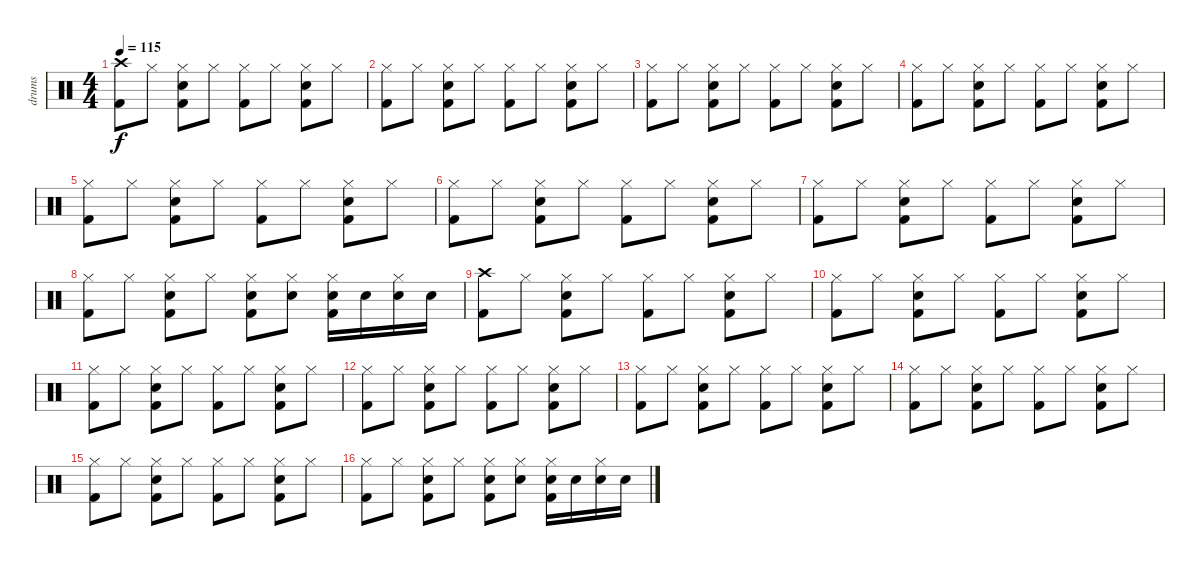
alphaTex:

\track ("drums" "drums") {instrument percussion}
\staff {score}
\articulation defaults
\ts (4 4)
\tempo 115
\clef neutral
\ks c
("Crash high (hit)" "Kick (hit) 2").8{dy f} "Hi-Hat (closed)".8 ("Hi-Hat (closed)" "Electric Snare (hit)" "Kick (hit) 2").8 "Hi-Hat (closed)".8 ("Hi-Hat (closed)" "Kick (hit) 2").8 "Hi-Hat (closed)".8 ("Hi-Hat (closed)" "Electric Snare (hit)" "Kick (hit) 2").8 "Hi-Hat (closed)".8 |
("Hi-Hat (closed)" "Kick (hit) 2").8 "Hi-Hat (closed)".8 ("Hi-Hat (closed)" "Electric Snare (hit)" "Kick (hit) 2").8 "Hi-Hat (closed)".8 ("Hi-Hat (closed)" "Kick (hit) 2").8 "Hi-Hat (closed)".8 ("Hi-Hat (closed)" "Electric Snare (hit)" "Kick (hit) 2").8 "Hi-Hat (closed)".8 |
("Hi-Hat (closed)" "Kick (hit) 2").8 "Hi-Hat (closed)".8 ("Hi-Hat (closed)" "Electric Snare (hit)" "Kick (hit) 2").8 "Hi-Hat (closed)".8 ("Hi-Hat (closed)" "Kick (hit) 2").8 "Hi-Hat (closed)".8 ("Hi-Hat (closed)" "Electric Snare (hit)" "Kick (hit) 2").8 "Hi-Hat (closed)".8 |
("Hi-Hat (closed)" "Kick (hit) 2").8 "Hi-Hat (closed)".8 ("Hi-Hat (closed)" "Electric Snare (hit)" "Kick (hit) 2").8 "Hi-Hat (closed)".8 ("Hi-Hat (closed)" "Kick (hit) 2").8 "Hi-Hat (closed)".8 ("Hi-Hat (closed)" "Electric Snare (hit)" "Kick (hit) 2").8 "Hi-Hat (closed)".8 |
("Hi-Hat (closed)" "Kick (hit) 2").8 "Hi-Hat (closed)".8 ("Hi-Hat (closed)" "Electric Snare (hit)" "Kick (hit) 2").8 "Hi-Hat (closed)".8 ("Hi-Hat (closed)" "Kick (hit) 2").8 "Hi-Hat (closed)".8 ("Hi-Hat (closed)" "Electric Snare (hit)" "Kick (hit) 2").8 "Hi-Hat (closed)".8 |
("Hi-Hat (closed)" "Kick (hit) 2").8 "Hi-Hat (closed)".8 ("Hi-Hat (closed)" "Electric Snare (hit)" "Kick (hit) 2").8 "Hi-Hat (closed)".8 ("Hi-Hat (closed)" "Kick (hit) 2").8 "Hi-Hat (closed)".8 ("Hi-Hat (closed)" "Electric Snare (hit)" "Kick (hit) 2").8 "Hi-Hat (closed)".8 |
("Hi-Hat (closed)" "Kick (hit) 2").8 "Hi-Hat (closed)".8 ("Hi-Hat (closed)" "Electric Snare (hit)" "Kick (hit) 2").8 "Hi-Hat (closed)".8 ("Hi-Hat (closed)" "Kick (hit) 2").8 "Hi-Hat (closed)".8 ("Hi-Hat (closed)" "Electric Snare (hit)" "Kick (hit) 2").8 "Hi-Hat (closed)".8 |
("Hi-Hat (closed)" "Kick (hit) 2").8 "Hi-Hat (closed)".8 ("Hi-Hat (closed)" "Electric Snare (hit)" "Kick (hit) 2").8 "Hi-Hat (closed)".8 ("Hi-Hat (closed)" "Electric Snare (hit)" "Kick (hit) 2").8 ("Hi-Hat (closed)" "Electric Snare (hit)").8 ("Hi-Hat (closed)" "Electric Snare (hit)" "Kick (hit) 2").16 "Electric Snare (hit)".16 ("Hi-Hat (closed)" "Electric Snare (hit)").16 "Electric Snare (hit)".16 |
("Crash high (hit)" "Kick (hit) 2").8 "Hi-Hat (closed)".8 ("Hi-Hat (closed)" "Electric Snare (hit)" "Kick (hit) 2").8 "Hi-Hat (closed)".8 ("Hi-Hat (closed)" "Kick (hit) 2").8 "Hi-Hat (closed)".8 ("Hi-Hat (closed)" "Electric Snare (hit)" "Kick (hit) 2").8 "Hi-Hat (closed)".8 |
("Hi-Hat (closed)" "Kick (hit) 2").8 "Hi-Hat (closed)".8 ("Hi-Hat (closed)" "Electric Snare (hit)" "Kick (hit) 2").8 "Hi-Hat (closed)".8 ("Hi-Hat (closed)" "Kick (hit) 2").8 "Hi-Hat (closed)".8 ("Hi-Hat (closed)" "Electric Snare (hit)" "Kick (hit) 2").8 "Hi-Hat (closed)".8 |
("Hi-Hat (closed)" "Kick (hit) 2").8 "Hi-Hat (closed)".8 ("Hi-Hat (closed)" "Electric Snare (hit)" "Kick (hit) 2").8 "Hi-Hat (closed)".8 ("Hi-Hat (closed)" "Kick (hit) 2").8 "Hi-Hat (closed)".8 ("Hi-Hat (closed)" "Electric Snare (hit)" "Kick (hit) 2").8 "Hi-Hat (closed)".8 |
("Hi-Hat (closed)" "Kick (hit) 2").8 "Hi-Hat (closed)".8 ("Hi-Hat (closed)" "Electric Snare (hit)" "Kick (hit) 2").8 "Hi-Hat (closed)".8 ("Hi-Hat (closed)" "Kick (hit) 2").8 "Hi-Hat (closed)".8 ("Hi-Hat (closed)" "Electric Snare (hit)" "Kick (hit) 2").8 "Hi-Hat (closed)".8 |
("Hi-Hat (closed)" "Kick (hit) 2").8 "Hi-Hat (closed)".8 ("Hi-Hat (closed)" "Electric Snare (hit)" "Kick (hit) 2").8 "Hi-Hat (closed)".8 ("Hi-Hat (closed)" "Kick (hit) 2").8 "Hi-Hat (closed)".8 ("Hi-Hat (closed)" "Electric Snare (hit)" "Kick (hit) 2").8 "Hi-Hat (closed)".8 |
("Hi-Hat (closed)" "Kick (hit) 2").8 "Hi-Hat (closed)".8 ("Hi-Hat (closed)" "Electric Snare (hit)" "Kick (hit) 2").8 "Hi-Hat (closed)".8 ("Hi-Hat (closed)" "Kick (hit) 2").8 "Hi-Hat (closed)".8 ("Hi-Hat (closed)" "Electric Snare (hit)" "Kick (hit) 2").8 "Hi-Hat (closed)".8 |
("Hi-Hat (closed)" "Kick (hit) 2").8 "Hi-Hat (closed)".8 ("Hi-Hat (closed)" "Electric Snare (hit)" "Kick (hit) 2").8 "Hi-Hat (closed)".8 ("Hi-Hat (closed)" "Kick (hit) 2").8 "Hi-Hat (closed)".8 ("Hi-Hat (closed)" "Electric Snare (hit)" "Kick (hit) 2").8 "Hi-Hat (closed)".8 |
("Hi-Hat (closed)" "Kick (hit) 2").8 "Hi-Hat (closed)".8 ("Hi-Hat (closed)" "Electric Snare (hit)" "Kick (hit) 2").8 "Hi-Hat (closed)".8 ("Hi-Hat (closed)" "Electric Snare (hit)" "Kick (hit) 2").8 ("Hi-Hat (closed)" "Electric Snare (hit)").8 ("Hi-Hat (closed)" "Electric Snare (hit)" "Kick (hit) 2").16 "Electric Snare (hit)".16 ("Hi-Hat (closed)" "Electric Snare (hit)").16 "Electric Snare (hit)".16
